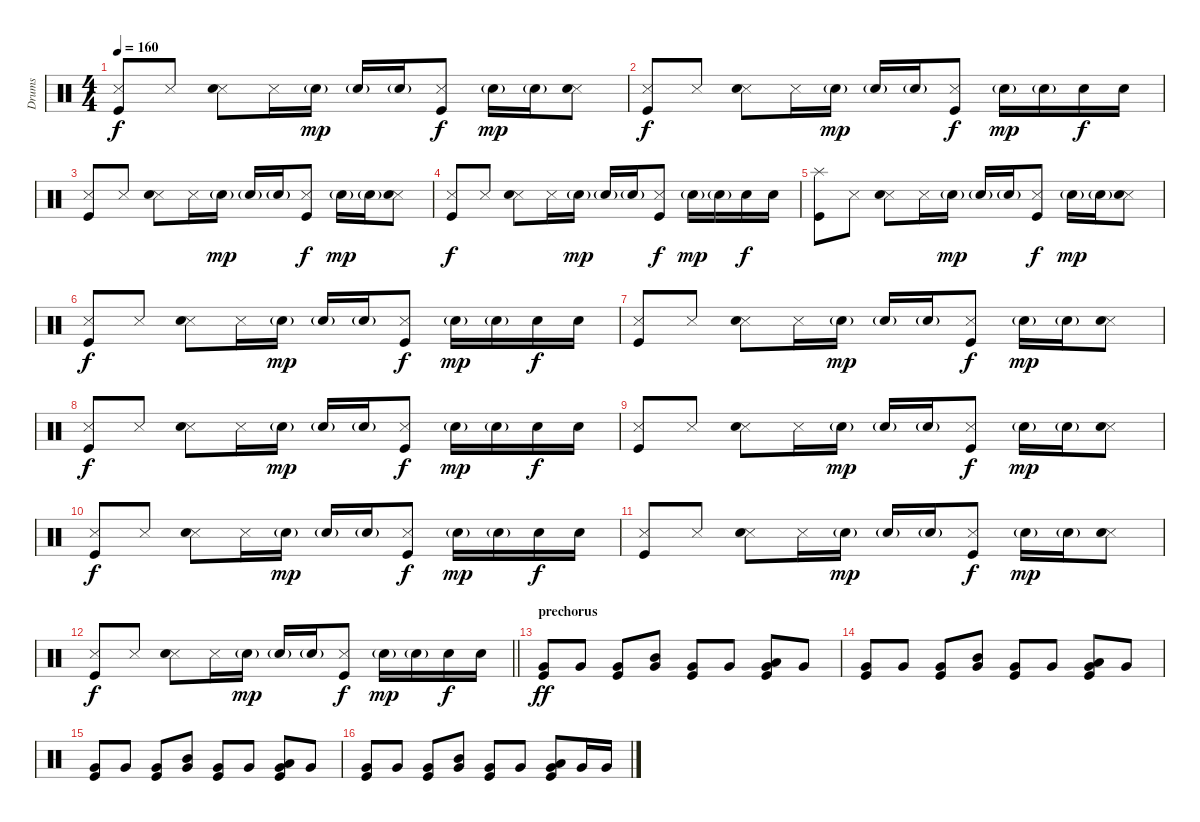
\track ("Drums" "Drums") {instrument percussion}
\staff {score}
\articulation defaults
\ts (4 4)
\tempo 160
\clef neutral
\ks c
("Metronome (hit)" "Kick (hit)").8{dy f} "Metronome (hit)".8 ("Metronome (hit)" "Electric Snare (hit)").8 "Metronome (hit)".16 "Electric Snare (hit)"{g}.16{dy mp} "Electric Snare (hit)"{g}.16 "Electric Snare (hit)"{g}.16 ("Metronome (hit)" "Kick (hit)").8{dy f} "Electric Snare (hit)"{g}.16{dy mp} "Electric Snare (hit)"{g}.16 ("Metronome (hit)" "Electric Snare (hit)").8 |
("Metronome (hit)" "Kick (hit)").8{dy f} "Metronome (hit)".8 ("Metronome (hit)" "Electric Snare (hit)").8 "Metronome (hit)".16 "Electric Snare (hit)"{g}.16{dy mp} "Electric Snare (hit)"{g}.16 "Electric Snare (hit)"{g}.16 ("Metronome (hit)" "Kick (hit)").8{dy f} "Electric Snare (hit)"{g}.16{dy mp} "Electric Snare (hit)"{g}.16 "Electric Snare (hit)".16{dy f} "Electric Snare (hit)".16 |
("Metronome (hit)" "Kick (hit)").8 "Metronome (hit)".8 ("Metronome (hit)" "Electric Snare (hit)").8 "Metronome (hit)".16 "Electric Snare (hit)"{g}.16{dy mp} "Electric Snare (hit)"{g}.16 "Electric Snare (hit)"{g}.16 ("Metronome (hit)" "Kick (hit)").8{dy f} "Electric Snare (hit)"{g}.16{dy mp} "Electric Snare (hit)"{g}.16 ("Metronome (hit)" "Electric Snare (hit)").8 |
("Metronome (hit)" "Kick (hit)").8{dy f} "Metronome (hit)".8 ("Metronome (hit)" "Electric Snare (hit)").8 "Metronome (hit)".16 "Electric Snare (hit)"{g}.16{dy mp} "Electric Snare (hit)"{g}.16 "Electric Snare (hit)"{g}.16 ("Metronome (hit)" "Kick (hit)").8{dy f} "Electric Snare (hit)"{g}.16{dy mp} "Electric Snare (hit)"{g}.16 "Electric Snare (hit)".16{dy f} "Electric Snare (hit)".16 |
("Splash (hit)" "Kick (hit)").8{volume 14} "Metronome (hit)".8 ("Metronome (hit)" "Electric Snare (hit)").8 "Metronome (hit)".16 "Electric Snare (hit)"{g}.16{dy mp} "Electric Snare (hit)"{g}.16 "Electric Snare (hit)"{g}.16 ("Metronome (hit)" "Kick (hit)").8{dy f} "Electric Snare (hit)"{g}.16{dy mp} "Electric Snare (hit)"{g}.16 ("Metronome (hit)" "Electric Snare (hit)").8 |
("Metronome (hit)" "Kick (hit)").8{dy f} "Metronome (hit)".8 ("Metronome (hit)" "Electric Snare (hit)").8 "Metronome (hit)".16 "Electric Snare (hit)"{g}.16{dy mp} "Electric Snare (hit)"{g}.16 "Electric Snare (hit)"{g}.16 ("Metronome (hit)" "Kick (hit)").8{dy f} "Electric Snare (hit)"{g}.16{dy mp} "Electric Snare (hit)"{g}.16 "Electric Snare (hit)".16{dy f} "Electric Snare (hit)".16 |
("Metronome (hit)" "Kick (hit)").8 "Metronome (hit)".8 ("Metronome (hit)" "Electric Snare (hit)").8 "Metronome (hit)".16 "Electric Snare (hit)"{g}.16{dy mp} "Electric Snare (hit)"{g}.16 "Electric Snare (hit)"{g}.16 ("Metronome (hit)" "Kick (hit)").8{dy f} "Electric Snare (hit)"{g}.16{dy mp} "Electric Snare (hit)"{g}.16 ("Metronome (hit)" "Electric Snare (hit)").8 |
("Metronome (hit)" "Kick (hit)").8{dy f} "Metronome (hit)".8 ("Metronome (hit)" "Electric Snare (hit)").8 "Metronome (hit)".16 "Electric Snare (hit)"{g}.16{dy mp} "Electric Snare (hit)"{g}.16 "Electric Snare (hit)"{g}.16 ("Metronome (hit)" "Kick (hit)").8{dy f} "Electric Snare (hit)"{g}.16{dy mp} "Electric Snare (hit)"{g}.16 "Electric Snare (hit)".16{dy f} "Electric Snare (hit)".16 |
("Metronome (hit)" "Kick (hit)").8 "Metronome (hit)".8 ("Metronome (hit)" "Electric Snare (hit)").8 "Metronome (hit)".16 "Electric Snare (hit)"{g}.16{dy mp} "Electric Snare (hit)"{g}.16 "Electric Snare (hit)"{g}.16 ("Metronome (hit)" "Kick (hit)").8{dy f} "Electric Snare (hit)"{g}.16{dy mp} "Electric Snare (hit)"{g}.16 ("Metronome (hit)" "Electric Snare (hit)").8 |
("Metronome (hit)" "Kick (hit)").8{dy f} "Metronome (hit)".8 ("Metronome (hit)" "Electric Snare (hit)").8 "Metronome (hit)".16 "Electric Snare (hit)"{g}.16{dy mp} "Electric Snare (hit)"{g}.16 "Electric Snare (hit)"{g}.16 ("Metronome (hit)" "Kick (hit)").8{dy f} "Electric Snare (hit)"{g}.16{dy mp} "Electric Snare (hit)"{g}.16 "Electric Snare (hit)".16{dy f} "Electric Snare (hit)".16 |
("Metronome (hit)" "Kick (hit)").8 "Metronome (hit)".8 ("Metronome (hit)" "Electric Snare (hit)").8 "Metronome (hit)".16 "Electric Snare (hit)"{g}.16{dy mp} "Electric Snare (hit)"{g}.16 "Electric Snare (hit)"{g}.16 ("Metronome (hit)" "Kick (hit)").8{dy f} "Electric Snare (hit)"{g}.16{dy mp} "Electric Snare (hit)"{g}.16 ("Metronome (hit)" "Electric Snare (hit)").8 |
\barLineRight lightlight
("Metronome (hit)" "Kick (hit)").8{dy f} "Metronome (hit)".8 ("Metronome (hit)" "Electric Snare (hit)").8 "Metronome (hit)".16 "Electric Snare (hit)"{g}.16{dy mp} "Electric Snare (hit)"{g}.16 "Electric Snare (hit)"{g}.16 ("Metronome (hit)" "Kick (hit)").8{dy f} "Electric Snare (hit)"{g}.16{dy mp} "Electric Snare (hit)"{g}.16 "Electric Snare (hit)".16{dy f} "Electric Snare (hit)".16 |
\section ("" "prechorus")
("Very Low Tom (hit)" "Kick (hit)").8{dy ff} "Very Low Tom (hit)".8 ("Very Low Tom (hit)" "Kick (hit)").8 ("Mid Tom (hit)" "Very Low Tom (hit)").8 ("Very Low Tom (hit)" "Kick (hit)").8 "Very Low Tom (hit)".8 ("Low Tom (hit)" "Very Low Tom (hit)" "Kick (hit)").8 "Very Low Tom (hit)".8 |
("Very Low Tom (hit)" "Kick (hit)").8 "Very Low Tom (hit)".8 ("Very Low Tom (hit)" "Kick (hit)").8 ("Mid Tom (hit)" "Very Low Tom (hit)").8 ("Very Low Tom (hit)" "Kick (hit)").8 "Very Low Tom (hit)".8 ("Low Tom (hit)" "Very Low Tom (hit)" "Kick (hit)").8 "Very Low Tom (hit)".8 |
("Very Low Tom (hit)" "Kick (hit)").8 "Very Low Tom (hit)".8 ("Very Low Tom (hit)" "Kick (hit)").8 ("Mid Tom (hit)" "Very Low Tom (hit)").8 ("Very Low Tom (hit)" "Kick (hit)").8 "Very Low Tom (hit)".8 ("Low Tom (hit)" "Very Low Tom (hit)" "Kick (hit)").8 "Very Low Tom (hit)".8 |
("Very Low Tom (hit)" "Kick (hit)").8 "Very Low Tom (hit)".8 ("Very Low Tom (hit)" "Kick (hit)").8 ("Mid Tom (hit)" "Very Low Tom (hit)").8 ("Very Low Tom (hit)" "Kick (hit)").8 "Very Low Tom (hit)".8 ("Low Tom (hit)" "Very Low Tom (hit)" "Kick (hit)").8 "Very Low Tom (hit)".16 "Very Low Tom (hit)".16
